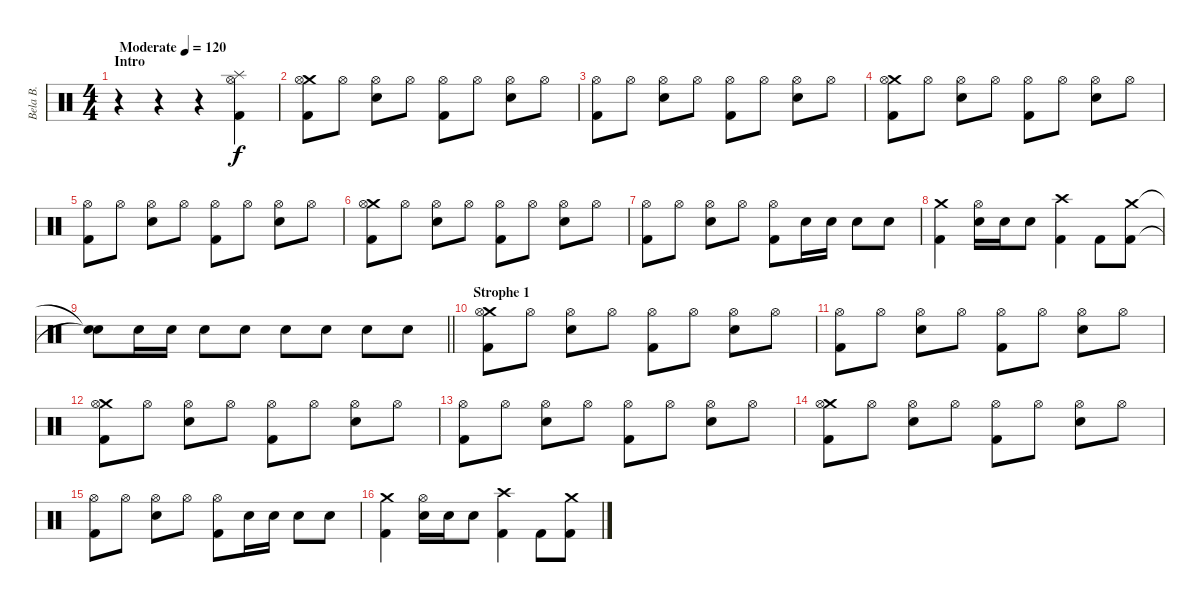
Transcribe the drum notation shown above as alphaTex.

\track ("Bela B." "Bela B.") {instrument percussion}
\staff {score}
\articulation defaults
\ts (4 4)
\section ("" "Intro")
\tempo (120 "Moderate")
\tempo 190
\tempo (120 "Moderate")
\clef neutral
\ks c
r.4{dy f} r.4 r.4 ("Hi-Hat (open)" "Splash (hit)" "Kick (hit) 2").4 |
("Crash medium (hit)" "Hi-Hat (open)" "Kick (hit) 2").8 "Hi-Hat (open)".8 ("Hi-Hat (open)" "Snare (hit) 2").8 "Hi-Hat (open)".8 ("Hi-Hat (open)" "Kick (hit) 2").8 "Hi-Hat (open)".8 ("Hi-Hat (open)" "Snare (hit) 2").8 "Hi-Hat (open)".8 |
("Hi-Hat (open)" "Kick (hit) 2").8 "Hi-Hat (open)".8 ("Hi-Hat (open)" "Snare (hit) 2").8 "Hi-Hat (open)".8 ("Hi-Hat (open)" "Kick (hit) 2").8 "Hi-Hat (open)".8 ("Hi-Hat (open)" "Snare (hit) 2").8 "Hi-Hat (open)".8 |
("Crash medium (hit)" "Hi-Hat (open)" "Kick (hit) 2").8 "Hi-Hat (open)".8 ("Hi-Hat (open)" "Snare (hit) 2").8 "Hi-Hat (open)".8 ("Hi-Hat (open)" "Kick (hit) 2").8 "Hi-Hat (open)".8 ("Hi-Hat (open)" "Snare (hit) 2").8 "Hi-Hat (open)".8 |
("Hi-Hat (open)" "Kick (hit) 2").8 "Hi-Hat (open)".8 ("Hi-Hat (open)" "Snare (hit) 2").8 "Hi-Hat (open)".8 ("Hi-Hat (open)" "Kick (hit) 2").8 "Hi-Hat (open)".8 ("Hi-Hat (open)" "Snare (hit) 2").8 "Hi-Hat (open)".8 |
("Crash medium (hit)" "Hi-Hat (open)" "Kick (hit) 2").8 "Hi-Hat (open)".8 ("Hi-Hat (open)" "Snare (hit) 2").8 "Hi-Hat (open)".8 ("Hi-Hat (open)" "Kick (hit) 2").8 "Hi-Hat (open)".8 ("Hi-Hat (open)" "Snare (hit) 2").8 "Hi-Hat (open)".8 |
("Hi-Hat (open)" "Kick (hit) 2").8 "Hi-Hat (open)".8 ("Hi-Hat (open)" "Snare (hit) 2").8 "Hi-Hat (open)".8 ("Hi-Hat (open)" "Kick (hit) 2").8 "Snare (hit) 2".16 "Snare (hit) 2".16 "Snare (hit) 2".8 "Snare (hit) 2".8 |
("Crash medium (hit)" "Kick (hit) 2").4 ("Hi-Hat (open)" "Snare (hit) 2").16 "Snare (hit) 2".16 "Snare (hit) 2".8 ("Crash high (hit)" "Kick (hit) 2").4 "Kick (hit) 2".8 ("Crash medium (hit)" "Kick (hit) 2").8 |
\barLineRight lightlight
("Snare (hit)"{t} "Snare (hit)"{t}).8 "Snare (hit) 2".16 "Snare (hit) 2".16 "Snare (hit) 2".8 "Snare (hit) 2".8 "Snare (hit) 2".8 "Snare (hit) 2".8 "Snare (hit) 2".8 "Snare (hit) 2".8 |
\section ("" "Strophe 1")
("Crash medium (hit)" "Hi-Hat (open)" "Kick (hit) 2").8 "Hi-Hat (open)".8 ("Hi-Hat (open)" "Snare (hit) 2").8 "Hi-Hat (open)".8 ("Hi-Hat (open)" "Kick (hit) 2").8 "Hi-Hat (open)".8 ("Hi-Hat (open)" "Snare (hit) 2").8 "Hi-Hat (open)".8 |
("Hi-Hat (open)" "Kick (hit) 2").8 "Hi-Hat (open)".8 ("Hi-Hat (open)" "Snare (hit) 2").8 "Hi-Hat (open)".8 ("Hi-Hat (open)" "Kick (hit) 2").8 "Hi-Hat (open)".8 ("Hi-Hat (open)" "Snare (hit) 2").8 "Hi-Hat (open)".8 |
("Crash medium (hit)" "Hi-Hat (open)" "Kick (hit) 2").8 "Hi-Hat (open)".8 ("Hi-Hat (open)" "Snare (hit) 2").8 "Hi-Hat (open)".8 ("Hi-Hat (open)" "Kick (hit) 2").8 "Hi-Hat (open)".8 ("Hi-Hat (open)" "Snare (hit) 2").8 "Hi-Hat (open)".8 |
("Hi-Hat (open)" "Kick (hit) 2").8 "Hi-Hat (open)".8 ("Hi-Hat (open)" "Snare (hit) 2").8 "Hi-Hat (open)".8 ("Hi-Hat (open)" "Kick (hit) 2").8 "Hi-Hat (open)".8 ("Hi-Hat (open)" "Snare (hit) 2").8 "Hi-Hat (open)".8 |
("Crash medium (hit)" "Hi-Hat (open)" "Kick (hit) 2").8 "Hi-Hat (open)".8 ("Hi-Hat (open)" "Snare (hit) 2").8 "Hi-Hat (open)".8 ("Hi-Hat (open)" "Kick (hit) 2").8 "Hi-Hat (open)".8 ("Hi-Hat (open)" "Snare (hit) 2").8 "Hi-Hat (open)".8 |
("Hi-Hat (open)" "Kick (hit) 2").8 "Hi-Hat (open)".8 ("Hi-Hat (open)" "Snare (hit) 2").8 "Hi-Hat (open)".8 ("Hi-Hat (open)" "Kick (hit) 2").8 "Snare (hit) 2".16 "Snare (hit) 2".16 "Snare (hit) 2".8 "Snare (hit) 2".8 |
("Crash medium (hit)" "Kick (hit) 2").4 ("Hi-Hat (open)" "Snare (hit) 2").16 "Snare (hit) 2".16 "Snare (hit) 2".8 ("Crash high (hit)" "Kick (hit) 2").4 "Kick (hit) 2".8 ("Crash medium (hit)" "Kick (hit) 2").8
